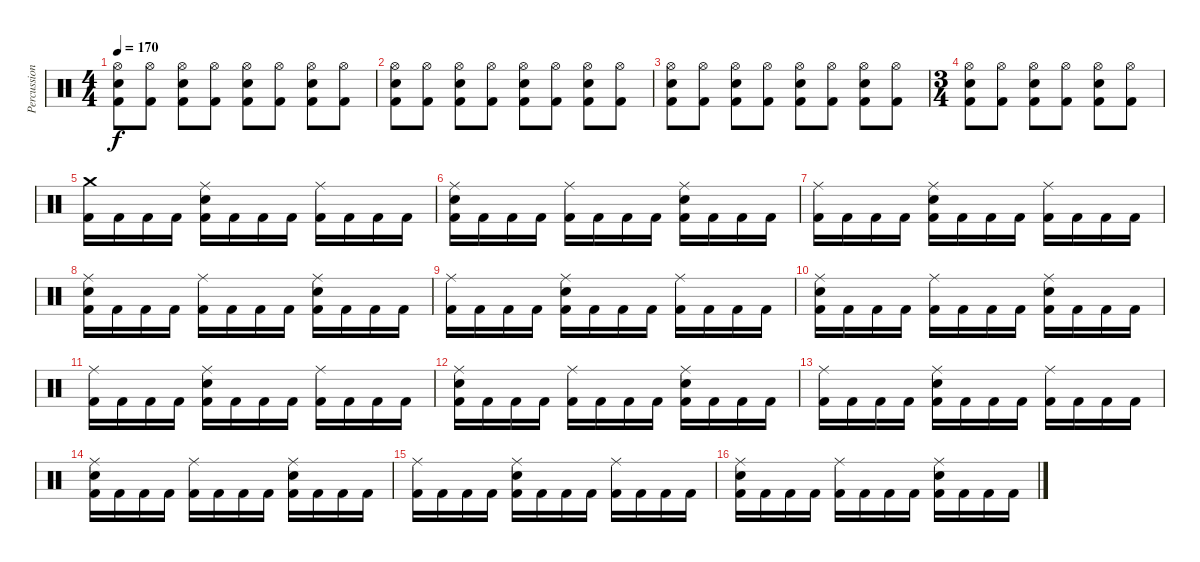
\track ("Percussion" "Percussion") {instrument percussion}
\staff {score}
\articulation defaults
\ts (4 4)
\tempo 170
\clef neutral
\ks c
("Kick (hit) 2" "Snare (hit) 2" "Hi-Hat (open)").8{dy f} ("Kick (hit) 2" "Hi-Hat (open)").8 ("Kick (hit) 2" "Snare (hit) 2" "Hi-Hat (open)").8 ("Kick (hit) 2" "Hi-Hat (open)").8 ("Kick (hit) 2" "Snare (hit) 2" "Hi-Hat (open)").8 ("Kick (hit) 2" "Hi-Hat (open)").8 ("Kick (hit) 2" "Snare (hit) 2" "Hi-Hat (open)").8 ("Kick (hit) 2" "Hi-Hat (open)").8 |
("Kick (hit) 2" "Snare (hit) 2" "Hi-Hat (open)").8 ("Kick (hit) 2" "Hi-Hat (open)").8 ("Kick (hit) 2" "Snare (hit) 2" "Hi-Hat (open)").8 ("Kick (hit) 2" "Hi-Hat (open)").8 ("Kick (hit) 2" "Snare (hit) 2" "Hi-Hat (open)").8 ("Kick (hit) 2" "Hi-Hat (open)").8 ("Kick (hit) 2" "Snare (hit) 2" "Hi-Hat (open)").8 ("Kick (hit) 2" "Hi-Hat (open)").8 |
("Kick (hit) 2" "Snare (hit) 2" "Hi-Hat (open)").8 ("Kick (hit) 2" "Hi-Hat (open)").8 ("Kick (hit) 2" "Snare (hit) 2" "Hi-Hat (open)").8 ("Kick (hit) 2" "Hi-Hat (open)").8 ("Kick (hit) 2" "Snare (hit) 2" "Hi-Hat (open)").8 ("Kick (hit) 2" "Hi-Hat (open)").8 ("Kick (hit) 2" "Snare (hit) 2" "Hi-Hat (open)").8 ("Kick (hit) 2" "Hi-Hat (open)").8 |
\ts (3 4)
("Kick (hit) 2" "Snare (hit) 2" "Hi-Hat (open)").8 ("Kick (hit) 2" "Hi-Hat (open)").8 ("Kick (hit) 2" "Snare (hit) 2" "Hi-Hat (open)").8 ("Kick (hit) 2" "Hi-Hat (open)").8 ("Kick (hit) 2" "Snare (hit) 2" "Hi-Hat (open)").8 ("Kick (hit) 2" "Hi-Hat (open)").8 |
("Kick (hit) 2" "Crash medium (hit)").16 "Kick (hit) 2".16 "Kick (hit) 2".16 "Kick (hit) 2".16 ("Kick (hit) 2" "Snare (hit) 2" "Ride (middle)").16 "Kick (hit) 2".16 "Kick (hit) 2".16 "Kick (hit) 2".16 ("Kick (hit) 2" "Ride (middle)").16 "Kick (hit) 2".16 "Kick (hit) 2".16 "Kick (hit) 2".16 |
("Kick (hit) 2" "Snare (hit) 2" "Ride (middle)").16 "Kick (hit) 2".16 "Kick (hit) 2".16 "Kick (hit) 2".16 ("Kick (hit) 2" "Ride (middle)").16 "Kick (hit) 2".16 "Kick (hit) 2".16 "Kick (hit) 2".16 ("Kick (hit) 2" "Snare (hit) 2" "Ride (middle)").16 "Kick (hit) 2".16 "Kick (hit) 2".16 "Kick (hit) 2".16 |
("Kick (hit) 2" "Ride (middle)").16 "Kick (hit) 2".16 "Kick (hit) 2".16 "Kick (hit) 2".16 ("Kick (hit) 2" "Snare (hit) 2" "Ride (middle)").16 "Kick (hit) 2".16 "Kick (hit) 2".16 "Kick (hit) 2".16 ("Kick (hit) 2" "Ride (middle)").16 "Kick (hit) 2".16 "Kick (hit) 2".16 "Kick (hit) 2".16 |
("Kick (hit) 2" "Snare (hit) 2" "Ride (middle)").16 "Kick (hit) 2".16 "Kick (hit) 2".16 "Kick (hit) 2".16 ("Kick (hit) 2" "Ride (middle)").16 "Kick (hit) 2".16 "Kick (hit) 2".16 "Kick (hit) 2".16 ("Kick (hit) 2" "Snare (hit) 2" "Ride (middle)").16 "Kick (hit) 2".16 "Kick (hit) 2".16 "Kick (hit) 2".16 |
("Kick (hit) 2" "Ride (middle)").16 "Kick (hit) 2".16 "Kick (hit) 2".16 "Kick (hit) 2".16 ("Kick (hit) 2" "Snare (hit) 2" "Ride (middle)").16 "Kick (hit) 2".16 "Kick (hit) 2".16 "Kick (hit) 2".16 ("Kick (hit) 2" "Ride (middle)").16 "Kick (hit) 2".16 "Kick (hit) 2".16 "Kick (hit) 2".16 |
("Kick (hit) 2" "Snare (hit) 2" "Ride (middle)").16 "Kick (hit) 2".16 "Kick (hit) 2".16 "Kick (hit) 2".16 ("Kick (hit) 2" "Ride (middle)").16 "Kick (hit) 2".16 "Kick (hit) 2".16 "Kick (hit) 2".16 ("Kick (hit) 2" "Snare (hit) 2" "Ride (middle)").16 "Kick (hit) 2".16 "Kick (hit) 2".16 "Kick (hit) 2".16 |
("Kick (hit) 2" "Ride (middle)").16 "Kick (hit) 2".16 "Kick (hit) 2".16 "Kick (hit) 2".16 ("Kick (hit) 2" "Snare (hit) 2" "Ride (middle)").16 "Kick (hit) 2".16 "Kick (hit) 2".16 "Kick (hit) 2".16 ("Kick (hit) 2" "Ride (middle)").16 "Kick (hit) 2".16 "Kick (hit) 2".16 "Kick (hit) 2".16 |
("Kick (hit) 2" "Snare (hit) 2" "Ride (middle)").16 "Kick (hit) 2".16 "Kick (hit) 2".16 "Kick (hit) 2".16 ("Kick (hit) 2" "Ride (middle)").16 "Kick (hit) 2".16 "Kick (hit) 2".16 "Kick (hit) 2".16 ("Kick (hit) 2" "Snare (hit) 2" "Ride (middle)").16 "Kick (hit) 2".16 "Kick (hit) 2".16 "Kick (hit) 2".16 |
("Kick (hit) 2" "Ride (middle)").16 "Kick (hit) 2".16 "Kick (hit) 2".16 "Kick (hit) 2".16 ("Kick (hit) 2" "Snare (hit) 2" "Ride (middle)").16 "Kick (hit) 2".16 "Kick (hit) 2".16 "Kick (hit) 2".16 ("Kick (hit) 2" "Ride (middle)").16 "Kick (hit) 2".16 "Kick (hit) 2".16 "Kick (hit) 2".16 |
("Kick (hit) 2" "Snare (hit) 2" "Ride (middle)").16 "Kick (hit) 2".16 "Kick (hit) 2".16 "Kick (hit) 2".16 ("Kick (hit) 2" "Ride (middle)").16 "Kick (hit) 2".16 "Kick (hit) 2".16 "Kick (hit) 2".16 ("Kick (hit) 2" "Snare (hit) 2" "Ride (middle)").16 "Kick (hit) 2".16 "Kick (hit) 2".16 "Kick (hit) 2".16 |
("Kick (hit) 2" "Ride (middle)").16 "Kick (hit) 2".16 "Kick (hit) 2".16 "Kick (hit) 2".16 ("Kick (hit) 2" "Snare (hit) 2" "Ride (middle)").16 "Kick (hit) 2".16 "Kick (hit) 2".16 "Kick (hit) 2".16 ("Kick (hit) 2" "Ride (middle)").16 "Kick (hit) 2".16 "Kick (hit) 2".16 "Kick (hit) 2".16 |
("Kick (hit) 2" "Snare (hit) 2" "Ride (middle)").16 "Kick (hit) 2".16 "Kick (hit) 2".16 "Kick (hit) 2".16 ("Kick (hit) 2" "Ride (middle)").16 "Kick (hit) 2".16 "Kick (hit) 2".16 "Kick (hit) 2".16 ("Kick (hit) 2" "Snare (hit) 2" "Ride (middle)").16 "Kick (hit) 2".16 "Kick (hit) 2".16 "Kick (hit) 2".16
